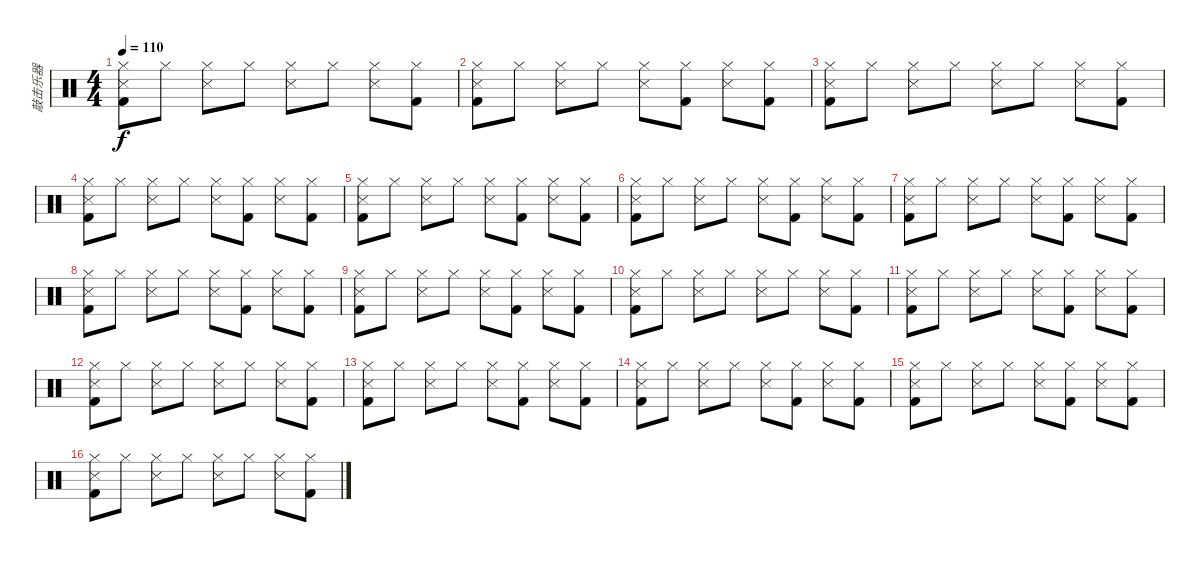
\track ("敲击乐器" "敲击乐器") {instrument percussion}
\staff {score}
\articulation defaults
\ts (4 4)
\tempo 110
\clef neutral
\ks c
("Hi-Hat (closed)" "Metronome (hit)" "Kick (hit) 2").8{dy f} "Hi-Hat (closed)".8 ("Hi-Hat (closed)" "Metronome (hit)").8 "Hi-Hat (closed)".8 ("Hi-Hat (closed)" "Metronome (hit)").8 "Hi-Hat (closed)".8 ("Hi-Hat (closed)" "Metronome (hit)").8 ("Hi-Hat (closed)" "Kick (hit) 2").8 |
("Hi-Hat (closed)" "Metronome (hit)" "Kick (hit) 2").8 "Hi-Hat (closed)".8 ("Hi-Hat (closed)" "Metronome (hit)").8 "Hi-Hat (closed)".8 ("Hi-Hat (closed)" "Metronome (hit)").8 ("Hi-Hat (closed)" "Kick (hit) 2").8 ("Hi-Hat (closed)" "Metronome (hit)").8 ("Hi-Hat (closed)" "Kick (hit) 2").8 |
("Hi-Hat (closed)" "Metronome (hit)" "Kick (hit) 2").8 "Hi-Hat (closed)".8 ("Hi-Hat (closed)" "Metronome (hit)").8 "Hi-Hat (closed)".8 ("Hi-Hat (closed)" "Metronome (hit)").8 "Hi-Hat (closed)".8 ("Hi-Hat (closed)" "Metronome (hit)").8 ("Hi-Hat (closed)" "Kick (hit) 2").8 |
("Hi-Hat (closed)" "Metronome (hit)" "Kick (hit) 2").8 "Hi-Hat (closed)".8 ("Hi-Hat (closed)" "Metronome (hit)").8 "Hi-Hat (closed)".8 ("Hi-Hat (closed)" "Metronome (hit)").8 ("Hi-Hat (closed)" "Kick (hit) 2").8 ("Hi-Hat (closed)" "Metronome (hit)").8 ("Hi-Hat (closed)" "Kick (hit) 2").8 |
("Hi-Hat (closed)" "Metronome (hit)" "Kick (hit) 2").8 "Hi-Hat (closed)".8 ("Hi-Hat (closed)" "Metronome (hit)").8 "Hi-Hat (closed)".8 ("Hi-Hat (closed)" "Metronome (hit)").8 ("Hi-Hat (closed)" "Kick (hit) 2").8 ("Hi-Hat (closed)" "Metronome (hit)").8 ("Hi-Hat (closed)" "Kick (hit) 2").8 |
("Hi-Hat (closed)" "Metronome (hit)" "Kick (hit) 2").8 "Hi-Hat (closed)".8 ("Hi-Hat (closed)" "Metronome (hit)").8 "Hi-Hat (closed)".8 ("Hi-Hat (closed)" "Metronome (hit)").8 ("Hi-Hat (closed)" "Kick (hit) 2").8 ("Hi-Hat (closed)" "Metronome (hit)").8 ("Hi-Hat (closed)" "Kick (hit) 2").8 |
("Hi-Hat (closed)" "Metronome (hit)" "Kick (hit) 2").8 "Hi-Hat (closed)".8 ("Hi-Hat (closed)" "Metronome (hit)").8 "Hi-Hat (closed)".8 ("Hi-Hat (closed)" "Metronome (hit)").8 ("Hi-Hat (closed)" "Kick (hit) 2").8 ("Hi-Hat (closed)" "Metronome (hit)").8 ("Hi-Hat (closed)" "Kick (hit) 2").8 |
("Hi-Hat (closed)" "Metronome (hit)" "Kick (hit) 2").8 "Hi-Hat (closed)".8 ("Hi-Hat (closed)" "Metronome (hit)").8 "Hi-Hat (closed)".8 ("Hi-Hat (closed)" "Metronome (hit)").8 ("Hi-Hat (closed)" "Kick (hit) 2").8 ("Hi-Hat (closed)" "Metronome (hit)").8 ("Hi-Hat (closed)" "Kick (hit) 2").8 |
("Hi-Hat (closed)" "Metronome (hit)" "Kick (hit) 2").8 "Hi-Hat (closed)".8 ("Hi-Hat (closed)" "Metronome (hit)").8 "Hi-Hat (closed)".8 ("Hi-Hat (closed)" "Metronome (hit)").8 ("Hi-Hat (closed)" "Kick (hit) 2").8 ("Hi-Hat (closed)" "Metronome (hit)").8 ("Hi-Hat (closed)" "Kick (hit) 2").8 |
("Hi-Hat (closed)" "Metronome (hit)" "Kick (hit) 2").8 "Hi-Hat (closed)".8 ("Hi-Hat (closed)" "Metronome (hit)").8 "Hi-Hat (closed)".8 ("Hi-Hat (closed)" "Metronome (hit)").8 "Hi-Hat (closed)".8 ("Hi-Hat (closed)" "Metronome (hit)").8 ("Hi-Hat (closed)" "Kick (hit) 2").8 |
("Hi-Hat (closed)" "Metronome (hit)" "Kick (hit) 2").8 "Hi-Hat (closed)".8 ("Hi-Hat (closed)" "Metronome (hit)").8 "Hi-Hat (closed)".8 ("Hi-Hat (closed)" "Metronome (hit)").8 ("Hi-Hat (closed)" "Kick (hit) 2").8 ("Hi-Hat (closed)" "Metronome (hit)").8 ("Hi-Hat (closed)" "Kick (hit) 2").8 |
("Hi-Hat (closed)" "Metronome (hit)" "Kick (hit) 2").8 "Hi-Hat (closed)".8 ("Hi-Hat (closed)" "Metronome (hit)").8 "Hi-Hat (closed)".8 ("Hi-Hat (closed)" "Metronome (hit)").8 "Hi-Hat (closed)".8 ("Hi-Hat (closed)" "Metronome (hit)").8 ("Hi-Hat (closed)" "Kick (hit) 2").8 |
("Hi-Hat (closed)" "Metronome (hit)" "Kick (hit) 2").8 "Hi-Hat (closed)".8 ("Hi-Hat (closed)" "Metronome (hit)").8 "Hi-Hat (closed)".8 ("Hi-Hat (closed)" "Metronome (hit)").8 ("Hi-Hat (closed)" "Kick (hit) 2").8 ("Hi-Hat (closed)" "Metronome (hit)").8 ("Hi-Hat (closed)" "Kick (hit) 2").8 |
("Hi-Hat (closed)" "Metronome (hit)" "Kick (hit) 2").8 "Hi-Hat (closed)".8 ("Hi-Hat (closed)" "Metronome (hit)").8 "Hi-Hat (closed)".8 ("Hi-Hat (closed)" "Metronome (hit)").8 ("Hi-Hat (closed)" "Kick (hit) 2").8 ("Hi-Hat (closed)" "Metronome (hit)").8 ("Hi-Hat (closed)" "Kick (hit) 2").8 |
("Hi-Hat (closed)" "Metronome (hit)" "Kick (hit) 2").8 "Hi-Hat (closed)".8 ("Hi-Hat (closed)" "Metronome (hit)").8 "Hi-Hat (closed)".8 ("Hi-Hat (closed)" "Metronome (hit)").8 ("Hi-Hat (closed)" "Kick (hit) 2").8 ("Hi-Hat (closed)" "Metronome (hit)").8 ("Hi-Hat (closed)" "Kick (hit) 2").8 |
("Hi-Hat (closed)" "Metronome (hit)" "Kick (hit) 2").8 "Hi-Hat (closed)".8 ("Hi-Hat (closed)" "Metronome (hit)").8 "Hi-Hat (closed)".8 ("Hi-Hat (closed)" "Metronome (hit)").8 "Hi-Hat (closed)".8 ("Hi-Hat (closed)" "Metronome (hit)").8 ("Hi-Hat (closed)" "Kick (hit) 2").8
